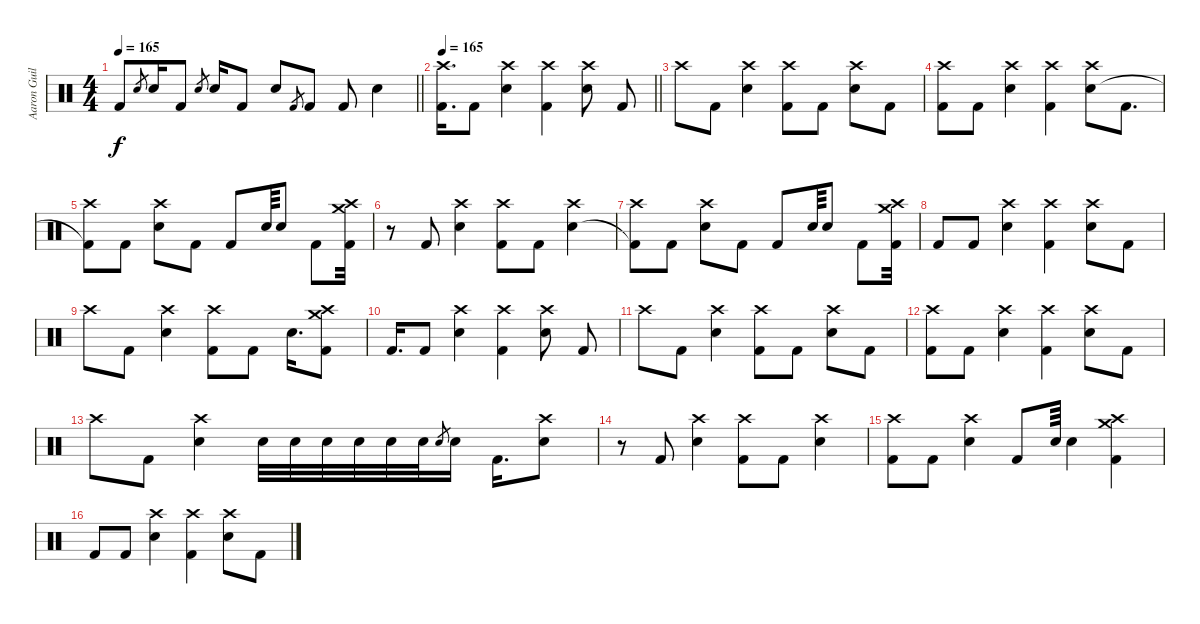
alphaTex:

\track ("Aaron Guillespie" "Aaron Guil") {instrument percussion}
\staff {score}
\articulation defaults
\ts (4 4)
\tempo 165
\tempo 155
\tempo 165
\clef neutral
\barLineRight lightlight
\ks c "Kick (hit) 2".8{dy f} "Electric Snare (hit)".8{gr} "Electric Snare (hit)".16 "Kick (hit) 2".8 "Electric Snare (hit)".8{gr} "Electric Snare (hit)".16 "Kick (hit) 2".8 "Electric Snare (hit)".8 "Kick (hit) 2".8{gr} "Kick (hit) 2".8 "Kick (hit) 2".8 "Electric Snare (hit)".4
|
\section ("" "")
\tempo 165
\barLineRight lightlight
("Crash high (hit)" "Kick (hit) 2").16{d} "Kick (hit) 2".8 ("Crash high (hit)" "Electric Snare (hit)").4 ("Crash high (hit)" "Kick (hit) 2").4 ("Crash high (hit)" "Electric Snare (hit)").8 "Kick (hit) 2".8 |
\section ("" "")
"Crash high (hit)".8 "Kick (hit) 2".8 ("Crash high (hit)" "Electric Snare (hit)").4 ("Crash high (hit)" "Kick (hit) 2").8 "Kick (hit) 2".8 ("Crash high (hit)" "Electric Snare (hit)").8 "Kick (hit) 2".8 |
("Crash high (hit)" "Kick (hit) 2").8 "Kick (hit) 2".8 ("Crash high (hit)" "Electric Snare (hit)").4 ("Crash high (hit)" "Kick (hit) 2").4 ("Crash high (hit)" "Electric Snare (hit)").8 "Kick (hit) 2".8{d} |
("Crash high (hit)" "Kick (hit) 2"{t}).8 "Kick (hit) 2".8 ("Crash high (hit)" "Electric Snare (hit)").8 "Kick (hit) 2".8 "Kick (hit) 2".8 "Electric Snare (hit)".64 "Electric Snare (hit)".8 "Kick (hit) 2".8 ("Crash medium (hit)" "Crash high (hit)" "Kick (hit) 2").32 |
r.8 "Kick (hit) 2".8 ("Crash high (hit)" "Electric Snare (hit)").4 ("Crash high (hit)" "Kick (hit) 2").8 "Kick (hit) 2".8 ("Crash high (hit)" "Electric Snare (hit)").4 |
("Crash high (hit)" "Kick (hit) 2"{t}).8 "Kick (hit) 2".8 ("Crash high (hit)" "Electric Snare (hit)").8 "Kick (hit) 2".8 "Kick (hit) 2".8 "Electric Snare (hit)".64 "Electric Snare (hit)".8 "Kick (hit) 2".8 ("Crash medium (hit)" "Crash high (hit)" "Kick (hit) 2").32 |
"Kick (hit) 2".8 "Kick (hit) 2".8 ("Crash high (hit)" "Electric Snare (hit)").4 ("Crash high (hit)" "Kick (hit) 2").4 ("Crash high (hit)" "Electric Snare (hit)").8 "Kick (hit) 2".8 |
"Crash high (hit)".8 "Kick (hit) 2".8 ("Crash high (hit)" "Electric Snare (hit)").4 ("Crash high (hit)" "Kick (hit) 2").8 "Kick (hit) 2".8 "Electric Snare (hit)".16{d} ("Crash high (hit)" "Crash medium (hit)" "Kick (hit) 2").8 |
"Kick (hit) 2".16{d} "Kick (hit) 2".8 ("Crash high (hit)" "Electric Snare (hit)").4 ("Crash high (hit)" "Kick (hit) 2").4 ("Crash high (hit)" "Electric Snare (hit)").8 "Kick (hit) 2".8 |
"Crash high (hit)".8 "Kick (hit) 2".8 ("Crash high (hit)" "Electric Snare (hit)").4 ("Crash high (hit)" "Kick (hit) 2").8 "Kick (hit) 2".8 ("Crash high (hit)" "Electric Snare (hit)").8 "Kick (hit) 2".8 |
("Crash high (hit)" "Kick (hit) 2").8 "Kick (hit) 2".8 ("Crash high (hit)" "Electric Snare (hit)").4 ("Crash high (hit)" "Kick (hit) 2").4 ("Crash high (hit)" "Electric Snare (hit)").8 "Kick (hit) 2".8 |
"Crash high (hit)".8 "Kick (hit) 2".8 ("Crash high (hit)" "Electric Snare (hit)").4 "Electric Snare (hit)".32 "Electric Snare (hit)".32 "Electric Snare (hit)".32 "Electric Snare (hit)".32 "Electric Snare (hit)".32 "Electric Snare (hit)".32 "Electric Snare (hit)".8{gr} "Electric Snare (hit)".16 "Kick (hit) 2".16{d} ("Crash high (hit)" "Electric Snare (hit)").8 |
r.8 "Kick (hit) 2".8 ("Crash high (hit)" "Electric Snare (hit)").4 ("Crash high (hit)" "Kick (hit) 2").8 "Kick (hit) 2".8 ("Crash high (hit)" "Electric Snare (hit)").4 |
("Crash high (hit)" "Kick (hit) 2").8 "Kick (hit) 2".8 ("Crash high (hit)" "Electric Snare (hit)").4 "Kick (hit) 2".8 "Electric Snare (hit)".64 "Electric Snare (hit)".4 ("Crash high (hit)" "Crash medium (hit)" "Kick (hit) 2").4 |
"Kick (hit) 2".8 "Kick (hit) 2".8 ("Crash high (hit)" "Electric Snare (hit)").4 ("Crash high (hit)" "Kick (hit) 2").4 ("Crash high (hit)" "Electric Snare (hit)").8 "Kick (hit) 2".8
